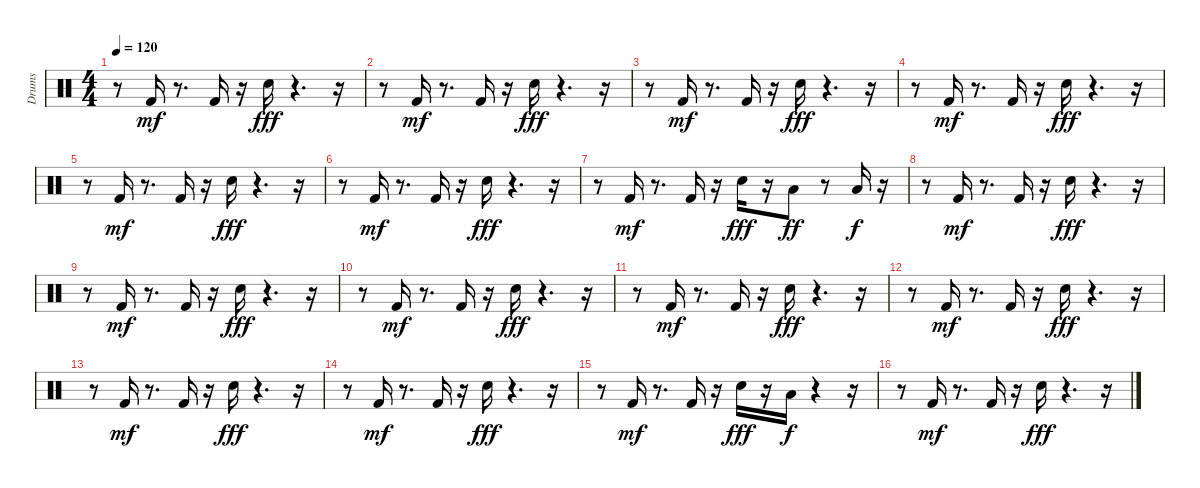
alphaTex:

\track ("Drums" "Drums") {instrument percussion}
\staff {score}
\articulation defaults
\ts (4 4)
\tempo 120
\clef neutral
\ks c
r.8{dy fff} "Kick (hit) 2".16{dy mf} r.8{d} "Kick (hit) 2".16 r.16 "Snare (hit) 2".16{dy fff} r.4{d} r.16 |
r.8 "Kick (hit) 2".16{dy mf} r.8{d} "Kick (hit) 2".16 r.16 "Snare (hit) 2".16{dy fff} r.4{d} r.16 |
r.8 "Kick (hit) 2".16{dy mf} r.8{d} "Kick (hit) 2".16 r.16 "Snare (hit) 2".16{dy fff} r.4{d} r.16 |
r.8 "Kick (hit) 2".16{dy mf} r.8{d} "Kick (hit) 2".16 r.16 "Snare (hit) 2".16{dy fff} r.4{d} r.16 |
r.8 "Kick (hit) 2".16{dy mf} r.8{d} "Kick (hit) 2".16 r.16 "Snare (hit) 2".16{dy fff} r.4{d} r.16 |
r.8 "Kick (hit) 2".16{dy mf} r.8{d} "Kick (hit) 2".16 r.16 "Snare (hit) 2".16{dy fff} r.4{d} r.16 |
r.8 "Kick (hit) 2".16{dy mf} r.8{d} "Kick (hit) 2".16 r.16 "Snare (hit) 2".16{dy fff} r.16 "Low Floor Tom (hit)".8{dy ff} r.8 "Low Floor Tom (hit)".16{dy f} r.16 |
r.8 "Kick (hit) 2".16{dy mf} r.8{d} "Kick (hit) 2".16 r.16 "Snare (hit) 2".16{dy fff} r.4{d} r.16 |
r.8 "Kick (hit) 2".16{dy mf} r.8{d} "Kick (hit) 2".16 r.16 "Snare (hit) 2".16{dy fff} r.4{d} r.16 |
r.8 "Kick (hit) 2".16{dy mf} r.8{d} "Kick (hit) 2".16 r.16 "Snare (hit) 2".16{dy fff} r.4{d} r.16 |
r.8 "Kick (hit) 2".16{dy mf} r.8{d} "Kick (hit) 2".16 r.16 "Snare (hit) 2".16{dy fff} r.4{d} r.16 |
r.8 "Kick (hit) 2".16{dy mf} r.8{d} "Kick (hit) 2".16 r.16 "Snare (hit) 2".16{dy fff} r.4{d} r.16 |
r.8 "Kick (hit) 2".16{dy mf} r.8{d} "Kick (hit) 2".16 r.16 "Snare (hit) 2".16{dy fff} r.4{d} r.16 |
r.8 "Kick (hit) 2".16{dy mf} r.8{d} "Kick (hit) 2".16 r.16 "Snare (hit) 2".16{dy fff} r.4{d} r.16 |
r.8 "Kick (hit) 2".16{dy mf} r.8{d} "Kick (hit) 2".16 r.16 "Snare (hit) 2".16{dy fff} r.16 "Low Floor Tom (hit)".16{dy f} r.4 r.16 |
r.8 "Kick (hit) 2".16{dy mf} r.8{d} "Kick (hit) 2".16 r.16 "Snare (hit) 2".16{dy fff} r.4{d} r.16
